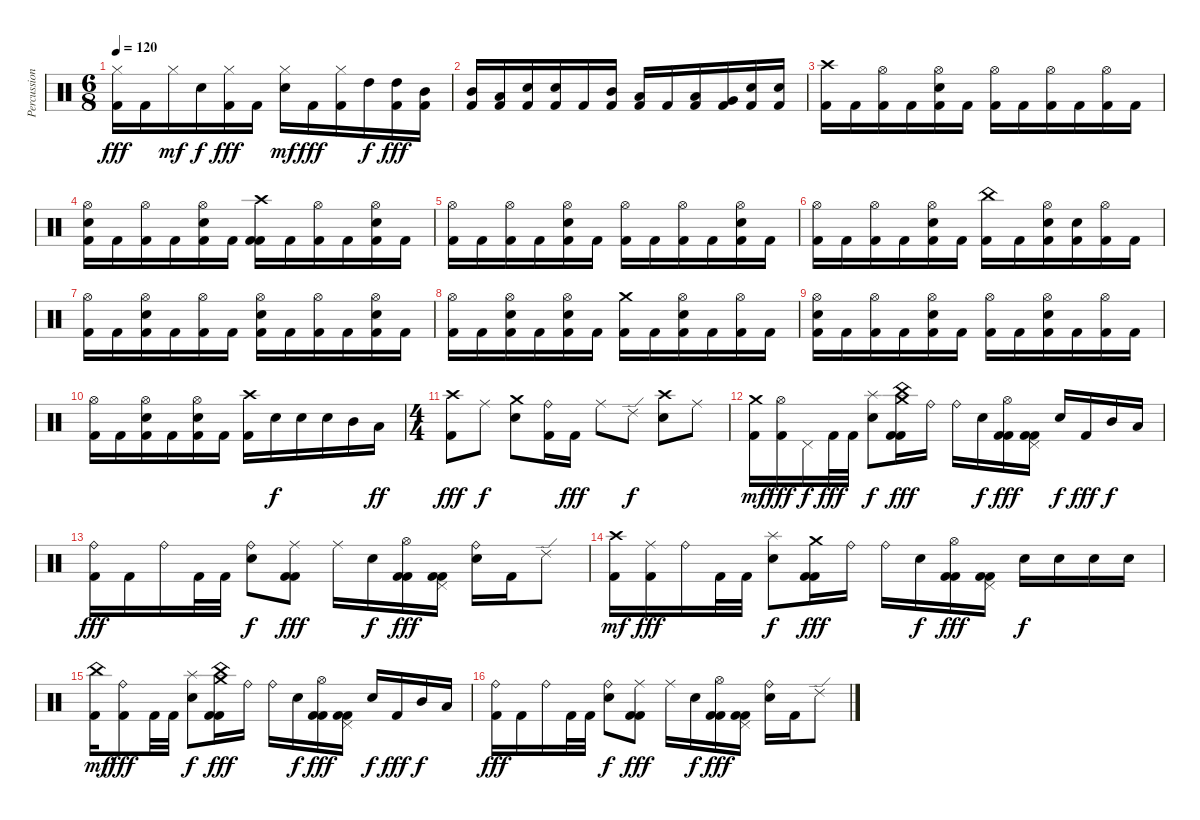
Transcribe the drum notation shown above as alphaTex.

\track ("Percussion" "Percussion") {instrument percussion}
\staff {score}
\articulation defaults
\ts (6 8)
\tempo 120
\clef neutral
\ks c
("Hi-Hat (closed)" "Kick (hit) 2").16{dy fff} "Kick (hit) 2".16 "Hi-Hat (closed)".16{dy mf} "Electric Snare (hit)".16{dy f} ("Hi-Hat (closed)" "Kick (hit) 2").16{dy fff} "Kick (hit) 2".16 ("Hi-Hat (closed)" "Electric Snare (hit)").16{dy mf} "Kick (hit) 2".16{dy fff} ("Hi-Hat (closed)" "Kick (hit) 2").16 "High Tom (hit)".16{dy f} ("High Tom (hit)" "Kick (hit) 2").16{dy fff} ("Mid Tom (hit)" "Kick (hit) 2").16 |
("Mid Tom (hit)" "Kick (hit) 2").16 ("Low Tom (hit)" "Kick (hit) 2").16 ("Electric Snare (hit)" "Kick (hit) 2").16 ("Electric Snare (hit)" "Kick (hit) 2").16 "Kick (hit) 2".16 ("Mid Tom (hit)" "Kick (hit) 2").16 ("Low Tom (hit)" "Kick (hit) 2").16 "Kick (hit) 2".16 ("Low Tom (hit)" "Kick (hit) 2").16 ("Very Low Tom (hit)" "Kick (hit) 2").16 ("Electric Snare (hit)" "Kick (hit) 2").16 ("Electric Snare (hit)" "Kick (hit) 2").16 |
("Crash high (hit)" "Kick (hit) 2").16 "Kick (hit) 2".16 ("Hi-Hat (open)" "Kick (hit) 2").16 "Kick (hit) 2".16 ("Hi-Hat (open)" "Electric Snare (hit)" "Kick (hit) 2").16 "Kick (hit) 2".16 ("Hi-Hat (open)" "Kick (hit) 2").16 "Kick (hit) 2".16 ("Hi-Hat (open)" "Kick (hit) 2").16 "Kick (hit) 2".16 ("Hi-Hat (open)" "Kick (hit) 2").16 "Kick (hit) 2".16 |
("Hi-Hat (open)" "Electric Snare (hit)" "Kick (hit) 2").16 "Kick (hit) 2".16 ("Hi-Hat (open)" "Kick (hit) 2").16 "Kick (hit) 2".16 ("Hi-Hat (open)" "Electric Snare (hit)" "Kick (hit) 2").16 "Kick (hit) 2".16 ("Crash high (hit)" "Kick (hit) 2" "Kick (hit) 2").16 "Kick (hit) 2".16 ("Hi-Hat (open)" "Kick (hit) 2").16 "Kick (hit) 2".16 ("Hi-Hat (open)" "Electric Snare (hit)" "Kick (hit) 2").16 "Kick (hit) 2".16 |
("Hi-Hat (open)" "Kick (hit) 2").16 "Kick (hit) 2".16 ("Hi-Hat (open)" "Kick (hit) 2").16 "Kick (hit) 2".16 ("Hi-Hat (open)" "Electric Snare (hit)" "Kick (hit) 2").16 "Kick (hit) 2".16 ("Hi-Hat (open)" "Kick (hit) 2").16 "Kick (hit) 2".16 ("Hi-Hat (open)" "Kick (hit) 2").16 "Kick (hit) 2".16 ("Hi-Hat (open)" "Electric Snare (hit)" "Kick (hit) 2").16 "Kick (hit) 2".16 |
("Hi-Hat (open)" "Kick (hit) 2").16 "Kick (hit) 2".16 ("Hi-Hat (open)" "Kick (hit) 2").16 "Kick (hit) 2".16 ("Hi-Hat (open)" "Electric Snare (hit)" "Kick (hit) 2").16 "Kick (hit) 2".16 ("China (hit)" "Kick (hit) 2").16 "Kick (hit) 2".16 ("Hi-Hat (open)" "Electric Snare (hit)" "Kick (hit) 2").16 ("Electric Snare (hit)" "Kick (hit) 2").16 ("Hi-Hat (open)" "Kick (hit) 2").16 "Kick (hit) 2".16 |
("Hi-Hat (open)" "Kick (hit) 2").16 "Kick (hit) 2".16 ("Hi-Hat (open)" "Electric Snare (hit)" "Kick (hit) 2").16 "Kick (hit) 2".16 ("Hi-Hat (open)" "Kick (hit) 2").16 "Kick (hit) 2".16 ("Hi-Hat (open)" "Electric Snare (hit)" "Kick (hit) 2").16 "Kick (hit) 2".16 ("Hi-Hat (open)" "Kick (hit) 2").16 "Kick (hit) 2".16 ("Hi-Hat (open)" "Electric Snare (hit)" "Kick (hit) 2").16 "Kick (hit) 2".16 |
("Hi-Hat (open)" "Kick (hit) 2").16 "Kick (hit) 2".16 ("Hi-Hat (open)" "Electric Snare (hit)" "Kick (hit) 2").16 "Kick (hit) 2".16 ("Hi-Hat (open)" "Electric Snare (hit)" "Kick (hit) 2").16 "Kick (hit) 2".16 ("Crash medium (hit)" "Kick (hit) 2").16 "Kick (hit) 2".16 ("Hi-Hat (open)" "Electric Snare (hit)" "Kick (hit) 2").16 "Kick (hit) 2".16 ("Hi-Hat (open)" "Kick (hit) 2").16 "Kick (hit) 2".16 |
("Hi-Hat (open)" "Electric Snare (hit)" "Kick (hit) 2").16 "Kick (hit) 2".16 ("Hi-Hat (open)" "Kick (hit) 2").16 "Kick (hit) 2".16 ("Hi-Hat (open)" "Electric Snare (hit)" "Kick (hit) 2").16 "Kick (hit) 2".16 ("Hi-Hat (open)" "Kick (hit) 2").16 "Kick (hit) 2".16 ("Hi-Hat (open)" "Electric Snare (hit)" "Kick (hit) 2").16 "Kick (hit) 2".16 ("Hi-Hat (open)" "Kick (hit) 2").16 "Kick (hit) 2".16 |
("Hi-Hat (open)" "Kick (hit) 2").16 "Kick (hit) 2".16 ("Hi-Hat (open)" "Electric Snare (hit)" "Kick (hit) 2").16 "Kick (hit) 2".16 ("Hi-Hat (open)" "Electric Snare (hit)" "Kick (hit) 2").16 "Kick (hit) 2".16 ("Crash high (hit)" "Kick (hit) 2").16 "Electric Snare (hit)".16{dy f} "Electric Snare (hit)".16 "Electric Snare (hit)".16 "Mid Tom (hit)".16 "Low Tom (hit)".16{dy ff} |
\ts (4 4)
("Crash high (hit)" "Kick (hit) 2").8{dy fff} "Ride (middle)".8{dy f} ("Crash medium (hit)" "Electric Snare (hit)").8 ("Ride (bell)" "Kick (hit) 2").16 "Kick (hit) 2".16{dy fff} "Ride (middle)".8 "Ride (edge) 2".8{dy f} ("Crash high (hit)" "Electric Snare (hit)").8 "Ride (middle)".8 |
("Crash medium (hit)" "Kick (hit) 2").16{dy mf} ("Hi-Hat (open)" "Kick (hit) 2").16{dy fff} "Pedal Hi-Hat (hit)".16{dy f} "Kick (hit) 2".32{dy fff} "Kick (hit) 2".32 ("Splash (hit)" "Electric Snare (hit)").8{dy f} ("China (hit)" "Crash medium (hit)" "Kick (hit) 2" "Kick (hit) 2").16{dy fff} "Ride (bell)".16 "Ride (bell)".16 "Electric Snare (hit)".16{dy f} ("Hi-Hat (open)" "Kick (hit) 2" "Kick (hit) 2").16{dy fff} ("Pedal Hi-Hat (hit)" "Kick (hit) 2" "Kick (hit) 2").16 "Electric Snare (hit)".16{dy f} "Kick (hit) 2".16{dy fff} "Mid Tom (hit)".16{dy f} "Low Tom (hit)".16 |
("Ride (bell)" "Kick (hit) 2").16{dy fff} "Kick (hit) 2".16 "Ride (bell)".16 "Kick (hit) 2".32 "Kick (hit) 2".32 ("Ride (bell)" "Electric Snare (hit)").8{dy f} ("Ride (middle)" "Kick (hit) 2" "Kick (hit) 2").8{dy fff} "Ride (middle)".16 "Electric Snare (hit)".16{dy f} ("Hi-Hat (open)" "Kick (hit) 2" "Kick (hit) 2").16{dy fff} ("Pedal Hi-Hat (hit)" "Kick (hit) 2" "Kick (hit) 2").16 ("Ride (bell)" "Electric Snare (hit)").16 "Kick (hit) 2".16 "Ride (edge) 2".8 |
("Crash high (hit)" "Kick (hit) 2").16{dy mf} ("Ride (middle)" "Kick (hit) 2").16{dy fff} "Ride (bell)".16 "Kick (hit) 2".32 "Kick (hit) 2".32 ("Splash (hit)" "Electric Snare (hit)").8{dy f} ("Crash medium (hit)" "Kick (hit) 2" "Kick (hit) 2").16{dy fff} "Ride (bell)".16 "Ride (bell)".16 "Electric Snare (hit)".16{dy f} ("Hi-Hat (open)" "Kick (hit) 2" "Kick (hit) 2").16{dy fff} ("Pedal Hi-Hat (hit)" "Kick (hit) 2" "Kick (hit) 2").16 "Electric Snare (hit)".16{dy f} "Electric Snare (hit)".16 "Electric Snare (hit)".16 "Electric Snare (hit)".16 |
("China (hit)" "Kick (hit) 2").16{dy mf} ("Ride (bell)" "Kick (hit) 2").8{dy fff} "Kick (hit) 2".32 "Kick (hit) 2".32 ("Splash (hit)" "Electric Snare (hit)").8{dy f} ("China (hit)" "Crash medium (hit)" "Kick (hit) 2" "Kick (hit) 2").16{dy fff} "Ride (bell)".16 "Ride (bell)".16 "Electric Snare (hit)".16{dy f} ("Hi-Hat (open)" "Kick (hit) 2" "Kick (hit) 2").16{dy fff} ("Pedal Hi-Hat (hit)" "Kick (hit) 2" "Kick (hit) 2").16 "Electric Snare (hit)".16{dy f} "Kick (hit) 2".16{dy fff} "Mid Tom (hit)".16{dy f} "Low Tom (hit)".16 |
("Ride (bell)" "Kick (hit) 2").16{dy fff} "Kick (hit) 2".16 "Ride (bell)".16 "Kick (hit) 2".32 "Kick (hit) 2".32 ("Ride (bell)" "Electric Snare (hit)").8{dy f} ("Ride (middle)" "Kick (hit) 2" "Kick (hit) 2").8{dy fff} "Ride (middle)".16 "Electric Snare (hit)".16{dy f} ("Hi-Hat (open)" "Kick (hit) 2" "Kick (hit) 2").16{dy fff} ("Pedal Hi-Hat (hit)" "Kick (hit) 2" "Kick (hit) 2").16 ("Ride (bell)" "Electric Snare (hit)").16 "Kick (hit) 2".16 "Ride (edge) 2".8
